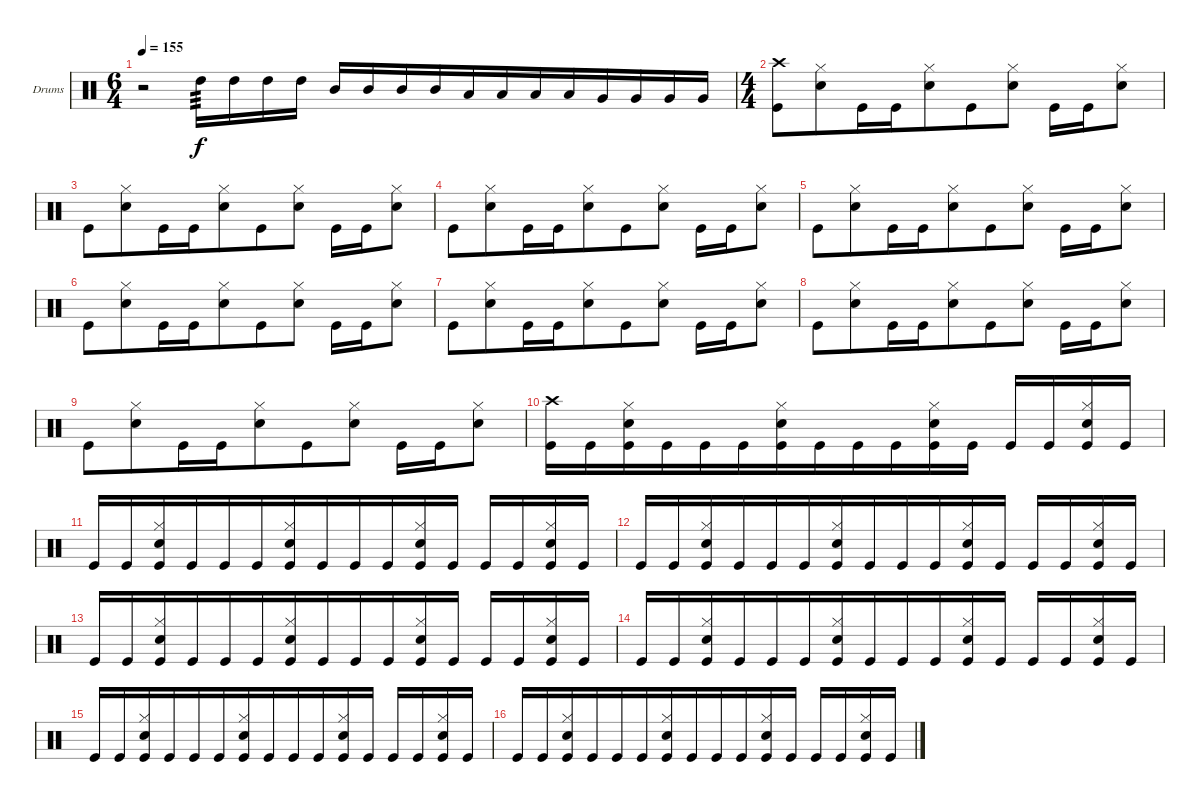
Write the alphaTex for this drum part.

\bracketExtendMode groupsimilarinstruments
\firstSystemTrackNameOrientation horizontal
\otherSystemsTrackNameOrientation horizontal
\track ("Drumkit" "Drums") {instrument percussion}
\staff {score}
\articulation defaults
\ts (6 4)
\beaming (8 6 6)
\tempo 155
\clef neutral
\ks c
r.2{dy f} "High Tom (hit)".16{tp 3} "High Tom (hit)".16 "High Tom (hit)".16 "High Tom (hit)".16 "Mid Tom (hit)".16 "Mid Tom (hit)".16 "Mid Tom (hit)".16 "Mid Tom (hit)".16 "Low Tom (hit)".16 "Low Tom (hit)".16 "Low Tom (hit)".16 "Low Tom (hit)".16 "Very Low Tom (hit)".16 "Very Low Tom (hit)".16 "Very Low Tom (hit)".16 "Very Low Tom (hit)".16 |
\ts (4 4)
\beaming (8 6 6)
("Crash high (hit)" "Kick (hit)").8 ("Hi-Hat (closed)" "Snare (hit) 2").8 "Kick (hit)".16 "Kick (hit)".16 ("Hi-Hat (closed)" "Snare (hit) 2").8 "Kick (hit)".8 ("Hi-Hat (closed)" "Snare (hit) 2").8 "Kick (hit)".16 "Kick (hit)".16 ("Hi-Hat (closed)" "Snare (hit) 2").8 |
"Kick (hit)".8 ("Hi-Hat (closed)" "Snare (hit) 2").8 "Kick (hit)".16 "Kick (hit)".16 ("Hi-Hat (closed)" "Snare (hit) 2").8 "Kick (hit)".8 ("Hi-Hat (closed)" "Snare (hit) 2").8 "Kick (hit)".16 "Kick (hit)".16 ("Hi-Hat (closed)" "Snare (hit) 2").8 |
"Kick (hit)".8 ("Hi-Hat (closed)" "Snare (hit) 2").8 "Kick (hit)".16 "Kick (hit)".16 ("Hi-Hat (closed)" "Snare (hit) 2").8 "Kick (hit)".8 ("Hi-Hat (closed)" "Snare (hit) 2").8 "Kick (hit)".16 "Kick (hit)".16 ("Hi-Hat (closed)" "Snare (hit) 2").8 |
"Kick (hit)".8 ("Hi-Hat (closed)" "Snare (hit) 2").8 "Kick (hit)".16 "Kick (hit)".16 ("Hi-Hat (closed)" "Snare (hit) 2").8 "Kick (hit)".8 ("Hi-Hat (closed)" "Snare (hit) 2").8 "Kick (hit)".16 "Kick (hit)".16 ("Hi-Hat (closed)" "Snare (hit) 2").8 |
"Kick (hit)".8 ("Hi-Hat (closed)" "Snare (hit) 2").8 "Kick (hit)".16 "Kick (hit)".16 ("Hi-Hat (closed)" "Snare (hit) 2").8 "Kick (hit)".8 ("Hi-Hat (closed)" "Snare (hit) 2").8 "Kick (hit)".16 "Kick (hit)".16 ("Hi-Hat (closed)" "Snare (hit) 2").8 |
"Kick (hit)".8 ("Hi-Hat (closed)" "Snare (hit) 2").8 "Kick (hit)".16 "Kick (hit)".16 ("Hi-Hat (closed)" "Snare (hit) 2").8 "Kick (hit)".8 ("Hi-Hat (closed)" "Snare (hit) 2").8 "Kick (hit)".16 "Kick (hit)".16 ("Hi-Hat (closed)" "Snare (hit) 2").8 |
"Kick (hit)".8 ("Hi-Hat (closed)" "Snare (hit) 2").8 "Kick (hit)".16 "Kick (hit)".16 ("Hi-Hat (closed)" "Snare (hit) 2").8 "Kick (hit)".8 ("Hi-Hat (closed)" "Snare (hit) 2").8 "Kick (hit)".16 "Kick (hit)".16 ("Hi-Hat (closed)" "Snare (hit) 2").8 |
"Kick (hit)".8 ("Hi-Hat (closed)" "Snare (hit) 2").8 "Kick (hit)".16 "Kick (hit)".16 ("Hi-Hat (closed)" "Snare (hit) 2").8 "Kick (hit)".8 ("Hi-Hat (closed)" "Snare (hit) 2").8 "Kick (hit)".16 "Kick (hit)".16 ("Hi-Hat (closed)" "Snare (hit) 2").8 |
("Crash high (hit)" "Kick (hit)").16 "Kick (hit)".16 ("Hi-Hat (closed)" "Snare (hit) 2" "Kick (hit)").16 "Kick (hit)".16 "Kick (hit)".16 "Kick (hit)".16 ("Hi-Hat (closed)" "Snare (hit) 2" "Kick (hit)").16 "Kick (hit)".16 "Kick (hit)".16 "Kick (hit)".16 ("Hi-Hat (closed)" "Snare (hit) 2" "Kick (hit)").16 "Kick (hit)".16 "Kick (hit)".16 "Kick (hit)".16 ("Hi-Hat (closed)" "Snare (hit) 2" "Kick (hit)").16 "Kick (hit)".16 |
"Kick (hit)".16 "Kick (hit)".16 ("Hi-Hat (closed)" "Snare (hit) 2" "Kick (hit)").16 "Kick (hit)".16 "Kick (hit)".16 "Kick (hit)".16 ("Hi-Hat (closed)" "Snare (hit) 2" "Kick (hit)").16 "Kick (hit)".16 "Kick (hit)".16 "Kick (hit)".16 ("Hi-Hat (closed)" "Snare (hit) 2" "Kick (hit)").16 "Kick (hit)".16 "Kick (hit)".16 "Kick (hit)".16 ("Hi-Hat (closed)" "Snare (hit) 2" "Kick (hit)").16 "Kick (hit)".16 |
"Kick (hit)".16 "Kick (hit)".16 ("Hi-Hat (closed)" "Snare (hit) 2" "Kick (hit)").16 "Kick (hit)".16 "Kick (hit)".16 "Kick (hit)".16 ("Hi-Hat (closed)" "Snare (hit) 2" "Kick (hit)").16 "Kick (hit)".16 "Kick (hit)".16 "Kick (hit)".16 ("Hi-Hat (closed)" "Snare (hit) 2" "Kick (hit)").16 "Kick (hit)".16 "Kick (hit)".16 "Kick (hit)".16 ("Hi-Hat (closed)" "Snare (hit) 2" "Kick (hit)").16 "Kick (hit)".16 |
"Kick (hit)".16 "Kick (hit)".16 ("Hi-Hat (closed)" "Snare (hit) 2" "Kick (hit)").16 "Kick (hit)".16 "Kick (hit)".16 "Kick (hit)".16 ("Hi-Hat (closed)" "Snare (hit) 2" "Kick (hit)").16 "Kick (hit)".16 "Kick (hit)".16 "Kick (hit)".16 ("Hi-Hat (closed)" "Snare (hit) 2" "Kick (hit)").16 "Kick (hit)".16 "Kick (hit)".16 "Kick (hit)".16 ("Hi-Hat (closed)" "Snare (hit) 2" "Kick (hit)").16 "Kick (hit)".16 |
"Kick (hit)".16 "Kick (hit)".16 ("Hi-Hat (closed)" "Snare (hit) 2" "Kick (hit)").16 "Kick (hit)".16 "Kick (hit)".16 "Kick (hit)".16 ("Hi-Hat (closed)" "Snare (hit) 2" "Kick (hit)").16 "Kick (hit)".16 "Kick (hit)".16 "Kick (hit)".16 ("Hi-Hat (closed)" "Snare (hit) 2" "Kick (hit)").16 "Kick (hit)".16 "Kick (hit)".16 "Kick (hit)".16 ("Hi-Hat (closed)" "Snare (hit) 2" "Kick (hit)").16 "Kick (hit)".16 |
"Kick (hit)".16 "Kick (hit)".16 ("Hi-Hat (closed)" "Snare (hit) 2" "Kick (hit)").16 "Kick (hit)".16 "Kick (hit)".16 "Kick (hit)".16 ("Hi-Hat (closed)" "Snare (hit) 2" "Kick (hit)").16 "Kick (hit)".16 "Kick (hit)".16 "Kick (hit)".16 ("Hi-Hat (closed)" "Snare (hit) 2" "Kick (hit)").16 "Kick (hit)".16 "Kick (hit)".16 "Kick (hit)".16 ("Hi-Hat (closed)" "Snare (hit) 2" "Kick (hit)").16 "Kick (hit)".16 |
"Kick (hit)".16 "Kick (hit)".16 ("Hi-Hat (closed)" "Snare (hit) 2" "Kick (hit)").16 "Kick (hit)".16 "Kick (hit)".16 "Kick (hit)".16 ("Hi-Hat (closed)" "Snare (hit) 2" "Kick (hit)").16 "Kick (hit)".16 "Kick (hit)".16 "Kick (hit)".16 ("Hi-Hat (closed)" "Snare (hit) 2" "Kick (hit)").16 "Kick (hit)".16 "Kick (hit)".16 "Kick (hit)".16 ("Hi-Hat (closed)" "Snare (hit) 2" "Kick (hit)").16 "Kick (hit)".16
